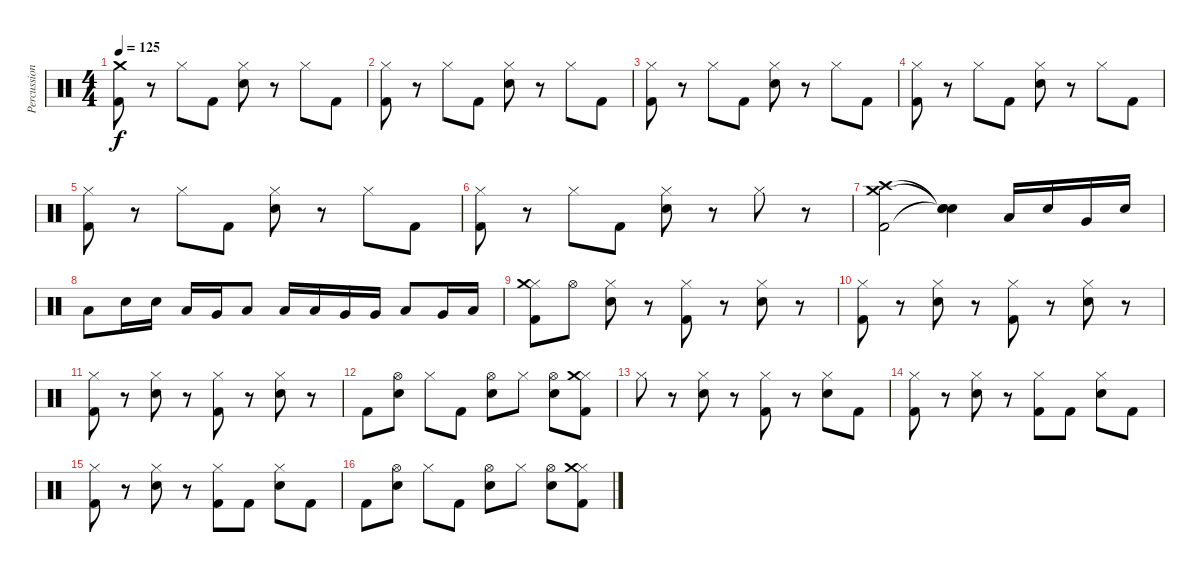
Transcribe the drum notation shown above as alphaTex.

\track ("Percussion" "Percussion") {instrument percussion}
\staff {score}
\articulation defaults
\ts (4 4)
\tempo 125
\clef neutral
\ks c
("Crash medium (hit)" "Kick (hit) 2").8{dy f} r.8 "Hi-Hat (closed)".8 "Kick (hit) 2".8 ("Hi-Hat (closed)" "Metronome (bell)").8 r.8 "Hi-Hat (closed)".8 "Kick (hit) 2".8 |
("Hi-Hat (closed)" "Kick (hit) 2").8 r.8 "Hi-Hat (closed)".8 "Kick (hit) 2".8 ("Hi-Hat (closed)" "Metronome (bell)").8 r.8 "Hi-Hat (closed)".8 "Kick (hit) 2".8 |
("Hi-Hat (closed)" "Kick (hit) 2").8 r.8 "Hi-Hat (closed)".8 "Kick (hit) 2".8 ("Hi-Hat (closed)" "Metronome (bell)").8 r.8 "Hi-Hat (closed)".8 "Kick (hit) 2".8 |
("Hi-Hat (closed)" "Kick (hit) 2").8 r.8 "Hi-Hat (closed)".8 "Kick (hit) 2".8 ("Hi-Hat (closed)" "Metronome (bell)").8 r.8 "Hi-Hat (closed)".8 "Kick (hit) 2".8 |
("Hi-Hat (closed)" "Kick (hit) 2").8 r.8 "Hi-Hat (closed)".8 "Kick (hit) 2".8 ("Hi-Hat (closed)" "Metronome (bell)").8 r.8 "Hi-Hat (closed)".8 "Kick (hit) 2".8 |
("Hi-Hat (closed)" "Kick (hit) 2").8 r.8 "Hi-Hat (closed)".8 "Kick (hit) 2".8 ("Hi-Hat (closed)" "Metronome (bell)").8 r.8 "Hi-Hat (closed)".8 r.8 |
("Crash medium (hit)" "Crash high (hit)" "Kick (hit) 2").2 ("Snare (hit)"{t} "Snare (hit)"{t} "Snare (hit)"{t}).4 "Low Tom (hit)".16 "Electric Snare (hit)".16 "Very Low Tom (hit)".16 "Electric Snare (hit)".16 |
"Low Floor Tom (hit)".8 "Electric Snare (hit)".16 "Electric Snare (hit)".16 "Low Tom (hit)".16 "Very Low Tom (hit)".16 "Low Floor Tom (hit)".8 "Low Tom (hit)".16 "Low Tom (hit)".16 "Very Low Tom (hit)".16 "Very Low Tom (hit)".16 "Low Floor Tom (hit)".8 "Very Low Tom (hit)".16 "Low Floor Tom (hit)".16 |
("Hi-Hat (closed)" "Crash medium (hit)" "Kick (hit) 2").8 "Hi-Hat (open)".8 ("Hi-Hat (closed)" "Metronome (bell)").8 r.8 ("Hi-Hat (closed)" "Kick (hit) 2").8 r.8 ("Hi-Hat (closed)" "Metronome (bell)").8 r.8 |
("Hi-Hat (closed)" "Kick (hit) 2").8 r.8 ("Hi-Hat (closed)" "Metronome (bell)").8 r.8 ("Hi-Hat (closed)" "Kick (hit) 2").8 r.8 ("Hi-Hat (closed)" "Metronome (bell)").8 r.8 |
("Hi-Hat (closed)" "Kick (hit) 2").8 r.8 ("Hi-Hat (closed)" "Metronome (bell)").8 r.8 ("Hi-Hat (closed)" "Kick (hit) 2").8 r.8 ("Hi-Hat (closed)" "Metronome (bell)").8 r.8 |
"Kick (hit) 2".8 ("Hi-Hat (open)" "Metronome (bell)").8 "Hi-Hat (closed)".8 "Kick (hit) 2".8 ("Hi-Hat (open)" "Metronome (bell)").8 "Hi-Hat (closed)".8 ("Hi-Hat (open)" "Metronome (bell)").8 ("Hi-Hat (closed)" "Crash medium (hit)" "Kick (hit) 2").8 |
"Hi-Hat (closed)".8 r.8 ("Hi-Hat (closed)" "Metronome (bell)").8 r.8 ("Hi-Hat (closed)" "Kick (hit) 2").8 r.8 ("Hi-Hat (closed)" "Metronome (bell)").8 "Kick (hit) 2".8 |
("Hi-Hat (closed)" "Kick (hit) 2").8 r.8 ("Hi-Hat (closed)" "Metronome (bell)").8 r.8 ("Hi-Hat (closed)" "Kick (hit) 2").8 "Kick (hit) 2".8 ("Hi-Hat (closed)" "Metronome (bell)").8 "Kick (hit) 2".8 |
("Hi-Hat (closed)" "Kick (hit) 2").8 r.8 ("Hi-Hat (closed)" "Metronome (bell)").8 r.8 ("Hi-Hat (closed)" "Kick (hit) 2").8 "Kick (hit) 2".8 ("Hi-Hat (closed)" "Metronome (bell)").8 "Kick (hit) 2".8 |
"Kick (hit) 2".8 ("Hi-Hat (open)" "Metronome (bell)").8 "Hi-Hat (closed)".8 "Kick (hit) 2".8 ("Hi-Hat (open)" "Metronome (bell)").8 "Hi-Hat (closed)".8 ("Hi-Hat (open)" "Metronome (bell)").8 ("Hi-Hat (closed)" "Crash medium (hit)" "Kick (hit) 2").8
